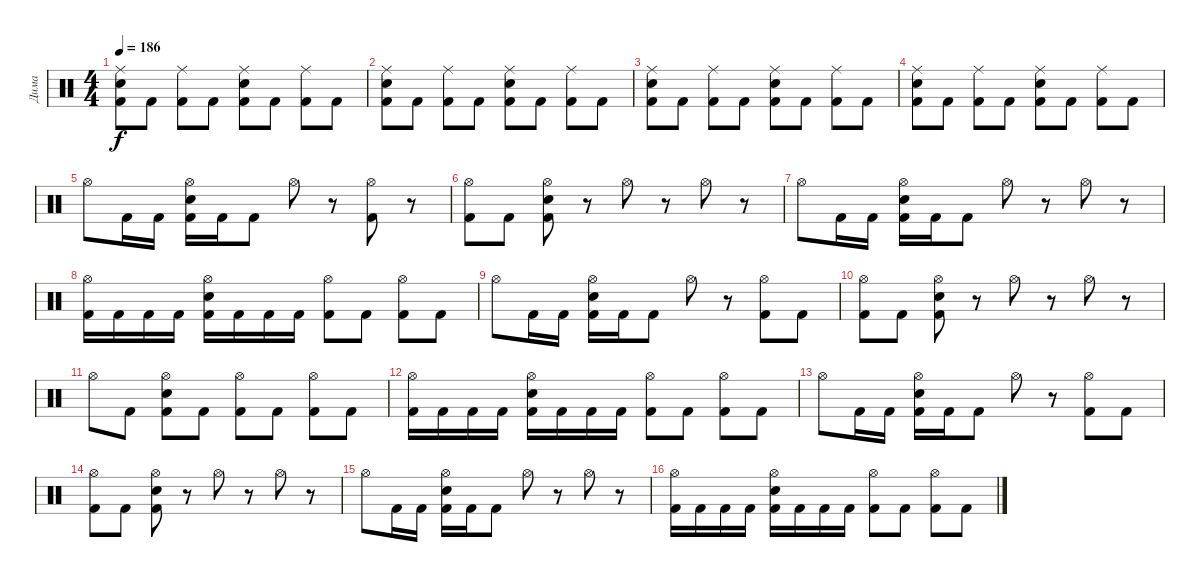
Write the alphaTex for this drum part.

\track ("Дима" "Дима") {instrument percussion}
\staff {score}
\articulation defaults
\ts (4 4)
\tempo 186
\clef neutral
\ks c
("Ride (middle)" "Snare (hit) 2" "Kick (hit) 2").8{dy f} "Kick (hit) 2".8 ("Ride (middle)" "Kick (hit) 2").8 "Kick (hit) 2".8 ("Ride (middle)" "Snare (hit) 2" "Kick (hit) 2").8 "Kick (hit) 2".8 ("Ride (middle)" "Kick (hit) 2").8 "Kick (hit) 2".8 |
("Ride (middle)" "Snare (hit) 2" "Kick (hit) 2").8 "Kick (hit) 2".8 ("Ride (middle)" "Kick (hit) 2").8 "Kick (hit) 2".8 ("Ride (middle)" "Snare (hit) 2" "Kick (hit) 2").8 "Kick (hit) 2".8 ("Ride (middle)" "Kick (hit) 2").8 "Kick (hit) 2".8 |
("Ride (middle)" "Snare (hit) 2" "Kick (hit) 2").8 "Kick (hit) 2".8 ("Ride (middle)" "Kick (hit) 2").8 "Kick (hit) 2".8 ("Ride (middle)" "Snare (hit) 2" "Kick (hit) 2").8 "Kick (hit) 2".8 ("Ride (middle)" "Kick (hit) 2").8 "Kick (hit) 2".8 |
("Ride (middle)" "Snare (hit) 2" "Kick (hit) 2").8 "Kick (hit) 2".8 ("Ride (middle)" "Kick (hit) 2").8 "Kick (hit) 2".8 ("Ride (middle)" "Snare (hit) 2" "Kick (hit) 2").8 "Kick (hit) 2".8 ("Ride (middle)" "Kick (hit) 2").8 "Kick (hit) 2".8 |
"Hi-Hat (open)".8 "Kick (hit) 2".16 "Kick (hit) 2".16 ("Hi-Hat (open)" "Snare (hit) 2" "Kick (hit) 2").16 "Kick (hit) 2".16 "Kick (hit) 2".8 "Hi-Hat (open)".8 r.8 ("Hi-Hat (open)" "Kick (hit) 2").8 r.8 |
("Hi-Hat (open)" "Kick (hit) 2").8 "Kick (hit) 2".8 ("Hi-Hat (open)" "Snare (hit) 2" "Kick (hit) 2").8 r.8 "Hi-Hat (open)".8 r.8 "Hi-Hat (open)".8 r.8 |
"Hi-Hat (open)".8 "Kick (hit) 2".16 "Kick (hit) 2".16 ("Hi-Hat (open)" "Snare (hit) 2" "Kick (hit) 2").16 "Kick (hit) 2".16 "Kick (hit) 2".8 "Hi-Hat (open)".8 r.8 "Hi-Hat (open)".8 r.8 |
("Hi-Hat (open)" "Kick (hit) 2").16 "Kick (hit) 2".16 "Kick (hit) 2".16 "Kick (hit) 2".16 ("Hi-Hat (open)" "Snare (hit) 2" "Kick (hit) 2").16 "Kick (hit) 2".16 "Kick (hit) 2".16 "Kick (hit) 2".16 ("Hi-Hat (open)" "Kick (hit) 2").8 "Kick (hit) 2".8 ("Hi-Hat (open)" "Kick (hit) 2").8 "Kick (hit) 2".8 |
"Hi-Hat (open)".8 "Kick (hit) 2".16 "Kick (hit) 2".16 ("Hi-Hat (open)" "Snare (hit) 2" "Kick (hit) 2").16 "Kick (hit) 2".16 "Kick (hit) 2".8 "Hi-Hat (open)".8 r.8 ("Hi-Hat (open)" "Kick (hit) 2").8 "Kick (hit) 2".8 |
("Hi-Hat (open)" "Kick (hit) 2").8 "Kick (hit) 2".8 ("Hi-Hat (open)" "Snare (hit) 2" "Kick (hit) 2").8 r.8 "Hi-Hat (open)".8 r.8 "Hi-Hat (open)".8 r.8 |
"Hi-Hat (open)".8 "Kick (hit) 2".8 ("Hi-Hat (open)" "Snare (hit) 2" "Kick (hit) 2").8 "Kick (hit) 2".8 ("Hi-Hat (open)" "Kick (hit) 2").8 "Kick (hit) 2".8 ("Hi-Hat (open)" "Kick (hit) 2").8 "Kick (hit) 2".8 |
("Hi-Hat (open)" "Kick (hit) 2").16 "Kick (hit) 2".16 "Kick (hit) 2".16 "Kick (hit) 2".16 ("Hi-Hat (open)" "Snare (hit) 2" "Kick (hit) 2").16 "Kick (hit) 2".16 "Kick (hit) 2".16 "Kick (hit) 2".16 ("Hi-Hat (open)" "Kick (hit) 2").8 "Kick (hit) 2".8 ("Hi-Hat (open)" "Kick (hit) 2").8 "Kick (hit) 2".8 |
"Hi-Hat (open)".8 "Kick (hit) 2".16 "Kick (hit) 2".16 ("Hi-Hat (open)" "Snare (hit) 2" "Kick (hit) 2").16 "Kick (hit) 2".16 "Kick (hit) 2".8 "Hi-Hat (open)".8 r.8 ("Hi-Hat (open)" "Kick (hit) 2").8 "Kick (hit) 2".8 |
("Hi-Hat (open)" "Kick (hit) 2").8 "Kick (hit) 2".8 ("Hi-Hat (open)" "Snare (hit) 2" "Kick (hit) 2").8 r.8 "Hi-Hat (open)".8 r.8 "Hi-Hat (open)".8 r.8 |
"Hi-Hat (open)".8 "Kick (hit) 2".16 "Kick (hit) 2".16 ("Hi-Hat (open)" "Snare (hit) 2" "Kick (hit) 2").16 "Kick (hit) 2".16 "Kick (hit) 2".8 "Hi-Hat (open)".8 r.8 "Hi-Hat (open)".8 r.8 |
("Hi-Hat (open)" "Kick (hit) 2").16 "Kick (hit) 2".16 "Kick (hit) 2".16 "Kick (hit) 2".16 ("Hi-Hat (open)" "Snare (hit) 2" "Kick (hit) 2").16 "Kick (hit) 2".16 "Kick (hit) 2".16 "Kick (hit) 2".16 ("Hi-Hat (open)" "Kick (hit) 2").8 "Kick (hit) 2".8 ("Hi-Hat (open)" "Kick (hit) 2").8 "Kick (hit) 2".8
